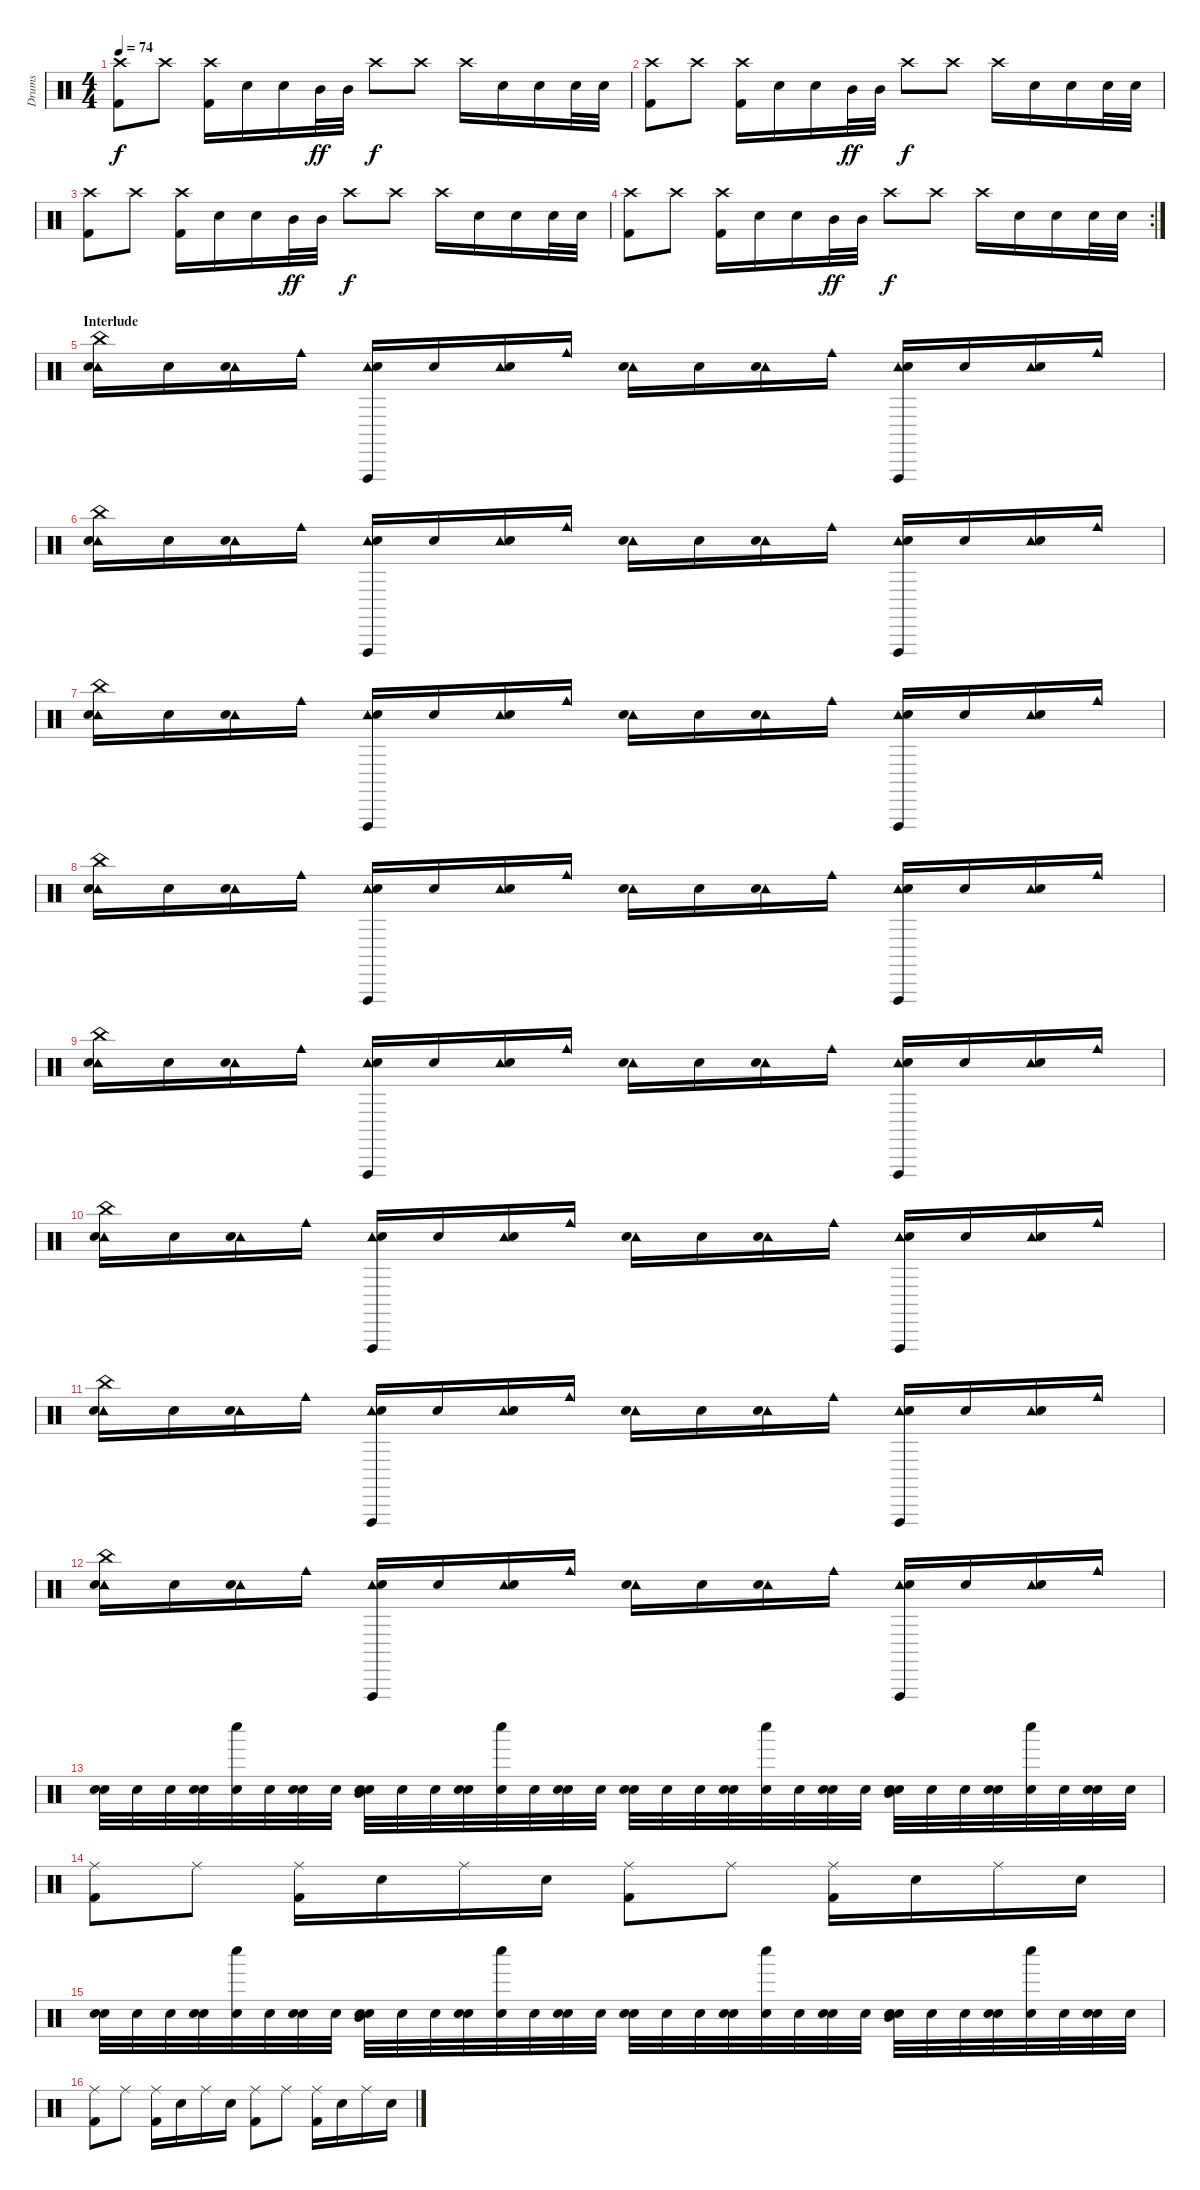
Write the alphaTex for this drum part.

\track ("Drums" "Drums") {instrument percussion}
\staff {score}
\articulation defaults
\ts (4 4)
\tempo 74
\clef neutral
\ks c
("Crash high (hit)" "Kick (hit) 2").8{dy f} "Crash high (hit)".8 ("Crash high (hit)" "Kick (hit) 2").16 "Electric Snare (hit)".16 "Electric Snare (hit)".16 "Mid Tom (hit)".32{dy ff} "Mid Tom (hit)".32 "Crash high (hit)".8{dy f} "Crash high (hit)".8 "Crash high (hit)".16 "Electric Snare (hit)".16 "Electric Snare (hit)".16 "Electric Snare (hit)".32 "Electric Snare (hit)".32 |
("Crash high (hit)" "Kick (hit) 2").8 "Crash high (hit)".8 ("Crash high (hit)" "Kick (hit) 2").16 "Electric Snare (hit)".16 "Electric Snare (hit)".16 "Mid Tom (hit)".32{dy ff} "Mid Tom (hit)".32 "Crash high (hit)".8{dy f} "Crash high (hit)".8 "Crash high (hit)".16 "Electric Snare (hit)".16 "Electric Snare (hit)".16 "Electric Snare (hit)".32 "Electric Snare (hit)".32 |
("Crash high (hit)" "Kick (hit) 2").8 "Crash high (hit)".8 ("Crash high (hit)" "Kick (hit) 2").16 "Electric Snare (hit)".16 "Electric Snare (hit)".16 "Mid Tom (hit)".32{dy ff} "Mid Tom (hit)".32 "Crash high (hit)".8{dy f} "Crash high (hit)".8 "Crash high (hit)".16 "Electric Snare (hit)".16 "Electric Snare (hit)".16 "Electric Snare (hit)".32 "Electric Snare (hit)".32 |
\rc 2
("Crash high (hit)" "Kick (hit) 2").8 "Crash high (hit)".8 ("Crash high (hit)" "Kick (hit) 2").16 "Electric Snare (hit)".16 "Electric Snare (hit)".16 "Mid Tom (hit)".32{dy ff} "Mid Tom (hit)".32 "Crash high (hit)".8{dy f} "Crash high (hit)".8 "Crash high (hit)".16 "Electric Snare (hit)".16 "Electric Snare (hit)".16 "Electric Snare (hit)".32 "Electric Snare (hit)".32 |
\section ("" "Interlude")
("China (hit)" "Tambourine (hit)" "Electric Snare (hit)").16 "Electric Snare (hit)".16 ("Tambourine (hit)" "Hand Clap (hit)").16 "Cowbell medium (hit)".16 ("Vibraslap (hit)" "Tambourine (hit)" "Electric Snare (hit)").16 "Electric Snare (hit)".16 ("Tambourine (hit)" "Hand Clap (hit)").16 "Cowbell medium (hit)".16 ("Tambourine (hit)" "Electric Snare (hit)").16 "Electric Snare (hit)".16 ("Tambourine (hit)" "Hand Clap (hit)").16 "Cowbell medium (hit)".16 ("Vibraslap (hit)" "Tambourine (hit)" "Electric Snare (hit)").16 "Electric Snare (hit)".16 ("Tambourine (hit)" "Hand Clap (hit)").16 "Cowbell medium (hit)".16 |
("China (hit)" "Tambourine (hit)" "Electric Snare (hit)").16 "Electric Snare (hit)".16 ("Tambourine (hit)" "Hand Clap (hit)").16 "Cowbell medium (hit)".16 ("Vibraslap (hit)" "Tambourine (hit)" "Electric Snare (hit)").16 "Electric Snare (hit)".16 ("Tambourine (hit)" "Hand Clap (hit)").16 "Cowbell medium (hit)".16 ("Tambourine (hit)" "Electric Snare (hit)").16 "Electric Snare (hit)".16 ("Tambourine (hit)" "Hand Clap (hit)").16 "Cowbell medium (hit)".16 ("Vibraslap (hit)" "Tambourine (hit)" "Electric Snare (hit)").16 "Electric Snare (hit)".16 ("Tambourine (hit)" "Hand Clap (hit)").16 "Cowbell medium (hit)".16 |
("China (hit)" "Tambourine (hit)" "Electric Snare (hit)").16 "Electric Snare (hit)".16 ("Tambourine (hit)" "Hand Clap (hit)").16 "Cowbell medium (hit)".16 ("Vibraslap (hit)" "Tambourine (hit)" "Electric Snare (hit)").16 "Electric Snare (hit)".16 ("Tambourine (hit)" "Hand Clap (hit)").16 "Cowbell medium (hit)".16 ("Tambourine (hit)" "Electric Snare (hit)").16 "Electric Snare (hit)".16 ("Tambourine (hit)" "Hand Clap (hit)").16 "Cowbell medium (hit)".16 ("Vibraslap (hit)" "Tambourine (hit)" "Electric Snare (hit)").16 "Electric Snare (hit)".16 ("Tambourine (hit)" "Hand Clap (hit)").16 "Cowbell medium (hit)".16 |
("China (hit)" "Tambourine (hit)" "Electric Snare (hit)").16 "Electric Snare (hit)".16 ("Tambourine (hit)" "Hand Clap (hit)").16 "Cowbell medium (hit)".16 ("Vibraslap (hit)" "Tambourine (hit)" "Electric Snare (hit)").16 "Electric Snare (hit)".16 ("Tambourine (hit)" "Hand Clap (hit)").16 "Cowbell medium (hit)".16 ("Tambourine (hit)" "Electric Snare (hit)").16 "Electric Snare (hit)".16 ("Tambourine (hit)" "Hand Clap (hit)").16 "Cowbell medium (hit)".16 ("Vibraslap (hit)" "Tambourine (hit)" "Electric Snare (hit)").16 "Electric Snare (hit)".16 ("Tambourine (hit)" "Hand Clap (hit)").16 "Cowbell medium (hit)".16 |
("China (hit)" "Tambourine (hit)" "Electric Snare (hit)").16 "Electric Snare (hit)".16 ("Tambourine (hit)" "Hand Clap (hit)").16 "Cowbell medium (hit)".16 ("Vibraslap (hit)" "Tambourine (hit)" "Electric Snare (hit)").16 "Electric Snare (hit)".16 ("Tambourine (hit)" "Hand Clap (hit)").16 "Cowbell medium (hit)".16 ("Tambourine (hit)" "Electric Snare (hit)").16 "Electric Snare (hit)".16 ("Tambourine (hit)" "Hand Clap (hit)").16 "Cowbell medium (hit)".16 ("Vibraslap (hit)" "Tambourine (hit)" "Electric Snare (hit)").16 "Electric Snare (hit)".16 ("Tambourine (hit)" "Hand Clap (hit)").16 "Cowbell medium (hit)".16 |
("China (hit)" "Tambourine (hit)" "Electric Snare (hit)").16 "Electric Snare (hit)".16 ("Tambourine (hit)" "Hand Clap (hit)").16 "Cowbell medium (hit)".16 ("Vibraslap (hit)" "Tambourine (hit)" "Electric Snare (hit)").16 "Electric Snare (hit)".16 ("Tambourine (hit)" "Hand Clap (hit)").16 "Cowbell medium (hit)".16 ("Tambourine (hit)" "Electric Snare (hit)").16 "Electric Snare (hit)".16 ("Tambourine (hit)" "Hand Clap (hit)").16 "Cowbell medium (hit)".16 ("Vibraslap (hit)" "Tambourine (hit)" "Electric Snare (hit)").16 "Electric Snare (hit)".16 ("Tambourine (hit)" "Hand Clap (hit)").16 "Cowbell medium (hit)".16 |
("China (hit)" "Tambourine (hit)" "Electric Snare (hit)").16 "Electric Snare (hit)".16 ("Tambourine (hit)" "Hand Clap (hit)").16 "Cowbell medium (hit)".16 ("Vibraslap (hit)" "Tambourine (hit)" "Electric Snare (hit)").16 "Electric Snare (hit)".16 ("Tambourine (hit)" "Hand Clap (hit)").16 "Cowbell medium (hit)".16 ("Tambourine (hit)" "Electric Snare (hit)").16 "Electric Snare (hit)".16 ("Tambourine (hit)" "Hand Clap (hit)").16 "Cowbell medium (hit)".16 ("Vibraslap (hit)" "Tambourine (hit)" "Electric Snare (hit)").16 "Electric Snare (hit)".16 ("Tambourine (hit)" "Hand Clap (hit)").16 "Cowbell medium (hit)".16 |
("China (hit)" "Tambourine (hit)" "Electric Snare (hit)").16 "Electric Snare (hit)".16 ("Tambourine (hit)" "Hand Clap (hit)").16 "Cowbell medium (hit)".16 ("Vibraslap (hit)" "Tambourine (hit)" "Electric Snare (hit)").16 "Electric Snare (hit)".16 ("Tambourine (hit)" "Hand Clap (hit)").16 "Cowbell medium (hit)".16 ("Tambourine (hit)" "Electric Snare (hit)").16 "Electric Snare (hit)".16 ("Tambourine (hit)" "Hand Clap (hit)").16 "Cowbell medium (hit)".16 ("Vibraslap (hit)" "Tambourine (hit)" "Electric Snare (hit)").16 "Electric Snare (hit)".16 ("Tambourine (hit)" "Hand Clap (hit)").16 "Cowbell medium (hit)".16 |
("Electric Snare (hit)" "Electric Snare (hit)").32 "Electric Snare (hit)".32 "Electric Snare (hit)".32 ("Electric Snare (hit)" "Electric Snare (hit)").32 ("Whistle low (hit)" "Electric Snare (hit)").32 "Electric Snare (hit)".32 ("Electric Snare (hit)" "Electric Snare (hit)").32 "Electric Snare (hit)".32 ("Mid Tom (hit)" "Electric Snare (hit)" "Electric Snare (hit)").32 "Electric Snare (hit)".32 "Electric Snare (hit)".32 ("Electric Snare (hit)" "Electric Snare (hit)").32 ("Whistle low (hit)" "Electric Snare (hit)").32 "Electric Snare (hit)".32 ("Electric Snare (hit)" "Electric Snare (hit)").32 "Electric Snare (hit)".32 ("Electric Snare (hit)" "Electric Snare (hit)").32 "Electric Snare (hit)".32 "Electric Snare (hit)".32 ("Electric Snare (hit)" "Electric Snare (hit)").32 ("Whistle low (hit)" "Electric Snare (hit)").32 "Electric Snare (hit)".32 ("Electric Snare (hit)" "Electric Snare (hit)").32 "Electric Snare (hit)".32 ("Mid Tom (hit)" "Electric Snare (hit)" "Electric Snare (hit)").32 "Electric Snare (hit)".32 "Electric Snare (hit)".32 ("Electric Snare (hit)" "Electric Snare (hit)").32 ("Whistle low (hit)" "Electric Snare (hit)").32 "Electric Snare (hit)".32 ("Electric Snare (hit)" "Electric Snare (hit)").32 "Electric Snare (hit)".32 |
("Ride (middle)" "Kick (hit) 2").8 "Ride (middle)".8 ("Ride (middle)" "Kick (hit) 2").16 "Electric Snare (hit)".16 "Ride (middle)".16 "Electric Snare (hit)".16 ("Ride (middle)" "Kick (hit) 2").8 "Ride (middle)".8 ("Ride (middle)" "Kick (hit) 2").16 "Electric Snare (hit)".16 "Ride (middle)".16 "Electric Snare (hit)".16 |
("Electric Snare (hit)" "Electric Snare (hit)").32 "Electric Snare (hit)".32 "Electric Snare (hit)".32 ("Electric Snare (hit)" "Electric Snare (hit)").32 ("Whistle low (hit)" "Electric Snare (hit)").32 "Electric Snare (hit)".32 ("Electric Snare (hit)" "Electric Snare (hit)").32 "Electric Snare (hit)".32 ("Mid Tom (hit)" "Electric Snare (hit)" "Electric Snare (hit)").32 "Electric Snare (hit)".32 "Electric Snare (hit)".32 ("Electric Snare (hit)" "Electric Snare (hit)").32 ("Whistle low (hit)" "Electric Snare (hit)").32 "Electric Snare (hit)".32 ("Electric Snare (hit)" "Electric Snare (hit)").32 "Electric Snare (hit)".32 ("Electric Snare (hit)" "Electric Snare (hit)").32 "Electric Snare (hit)".32 "Electric Snare (hit)".32 ("Electric Snare (hit)" "Electric Snare (hit)").32 ("Whistle low (hit)" "Electric Snare (hit)").32 "Electric Snare (hit)".32 ("Electric Snare (hit)" "Electric Snare (hit)").32 "Electric Snare (hit)".32 ("Mid Tom (hit)" "Electric Snare (hit)" "Electric Snare (hit)").32 "Electric Snare (hit)".32 "Electric Snare (hit)".32 ("Electric Snare (hit)" "Electric Snare (hit)").32 ("Whistle low (hit)" "Electric Snare (hit)").32 "Electric Snare (hit)".32 ("Electric Snare (hit)" "Electric Snare (hit)").32 "Electric Snare (hit)".32 |
("Ride (middle)" "Kick (hit) 2").8 "Ride (middle)".8 ("Ride (middle)" "Kick (hit) 2").16 "Electric Snare (hit)".16 "Ride (middle)".16 "Electric Snare (hit)".16 ("Ride (middle)" "Kick (hit) 2").8 "Ride (middle)".8 ("Ride (middle)" "Kick (hit) 2").16 "Electric Snare (hit)".16 "Ride (middle)".16 "Electric Snare (hit)".16
